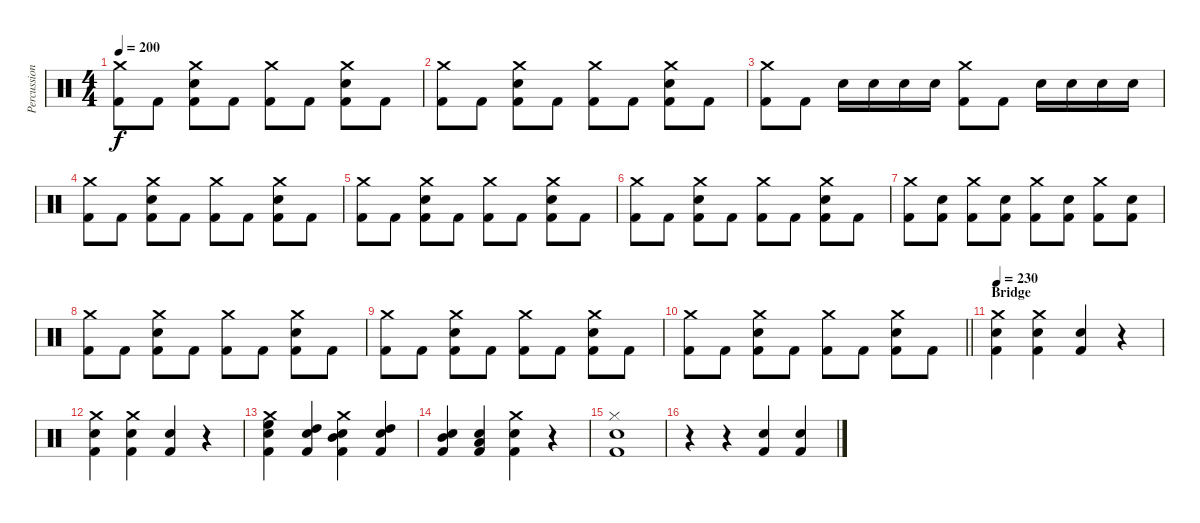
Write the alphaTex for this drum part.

\track ("Percussion" "Percussion") {instrument percussion}
\staff {score}
\articulation defaults
\ts (4 4)
\tempo 200
\clef neutral
\ks c
("Crash medium (hit)" "Kick (hit) 2").8{dy f} "Kick (hit) 2".8 ("Crash medium (hit)" "Electric Snare (hit)" "Kick (hit) 2").8 "Kick (hit) 2".8 ("Crash medium (hit)" "Kick (hit) 2").8 "Kick (hit) 2".8 ("Crash medium (hit)" "Electric Snare (hit)" "Kick (hit) 2").8 "Kick (hit) 2".8 |
("Crash medium (hit)" "Kick (hit) 2").8 "Kick (hit) 2".8 ("Crash medium (hit)" "Electric Snare (hit)" "Kick (hit) 2").8 "Kick (hit) 2".8 ("Crash medium (hit)" "Kick (hit) 2").8 "Kick (hit) 2".8 ("Crash medium (hit)" "Electric Snare (hit)" "Kick (hit) 2").8 "Kick (hit) 2".8 |
("Crash medium (hit)" "Kick (hit) 2").8 "Kick (hit) 2".8 "Electric Snare (hit)".16 "Electric Snare (hit)".16 "Electric Snare (hit)".16 "Electric Snare (hit)".16 ("Crash medium (hit)" "Kick (hit) 2").8 "Kick (hit) 2".8 "Electric Snare (hit)".16 "Electric Snare (hit)".16 "Electric Snare (hit)".16 "Electric Snare (hit)".16 |
("Crash medium (hit)" "Kick (hit) 2").8 "Kick (hit) 2".8 ("Crash medium (hit)" "Electric Snare (hit)" "Kick (hit) 2").8 "Kick (hit) 2".8 ("Crash medium (hit)" "Kick (hit) 2").8 "Kick (hit) 2".8 ("Crash medium (hit)" "Electric Snare (hit)" "Kick (hit) 2").8 "Kick (hit) 2".8 |
("Crash medium (hit)" "Kick (hit) 2").8 "Kick (hit) 2".8 ("Crash medium (hit)" "Electric Snare (hit)" "Kick (hit) 2").8 "Kick (hit) 2".8 ("Crash medium (hit)" "Kick (hit) 2").8 "Kick (hit) 2".8 ("Crash medium (hit)" "Electric Snare (hit)" "Kick (hit) 2").8 "Kick (hit) 2".8 |
("Crash medium (hit)" "Kick (hit) 2").8 "Kick (hit) 2".8 ("Crash medium (hit)" "Electric Snare (hit)" "Kick (hit) 2").8 "Kick (hit) 2".8 ("Crash medium (hit)" "Kick (hit) 2").8 "Kick (hit) 2".8 ("Crash medium (hit)" "Electric Snare (hit)" "Kick (hit) 2").8 "Kick (hit) 2".8 |
("Crash medium (hit)" "Kick (hit) 2").8 ("Electric Snare (hit)" "Kick (hit) 2").8 ("Crash medium (hit)" "Kick (hit) 2").8 ("Electric Snare (hit)" "Kick (hit) 2").8 ("Crash medium (hit)" "Kick (hit) 2").8 ("Electric Snare (hit)" "Kick (hit) 2").8 ("Crash medium (hit)" "Kick (hit) 2").8 ("Electric Snare (hit)" "Kick (hit) 2").8 |
("Crash medium (hit)" "Kick (hit) 2").8 "Kick (hit) 2".8 ("Crash medium (hit)" "Electric Snare (hit)" "Kick (hit) 2").8 "Kick (hit) 2".8 ("Crash medium (hit)" "Kick (hit) 2").8 "Kick (hit) 2".8 ("Crash medium (hit)" "Electric Snare (hit)" "Kick (hit) 2").8 "Kick (hit) 2".8 |
("Crash medium (hit)" "Kick (hit) 2").8 "Kick (hit) 2".8 ("Crash medium (hit)" "Electric Snare (hit)" "Kick (hit) 2").8 "Kick (hit) 2".8 ("Crash medium (hit)" "Kick (hit) 2").8 "Kick (hit) 2".8 ("Crash medium (hit)" "Electric Snare (hit)" "Kick (hit) 2").8 "Kick (hit) 2".8 |
\barLineRight lightlight
("Crash medium (hit)" "Kick (hit) 2").8 "Kick (hit) 2".8 ("Crash medium (hit)" "Electric Snare (hit)" "Kick (hit) 2").8 "Kick (hit) 2".8 ("Crash medium (hit)" "Kick (hit) 2").8 "Kick (hit) 2".8 ("Crash medium (hit)" "Electric Snare (hit)" "Kick (hit) 2").8 "Kick (hit) 2".8 |
\section ("" "Bridge")
\tempo 230
("Crash medium (hit)" "Electric Snare (hit)" "Kick (hit) 2").4 ("Crash medium (hit)" "Electric Snare (hit)" "Kick (hit) 2").4 ("Electric Snare (hit)" "Kick (hit) 2").4 r.4 |
("Crash medium (hit)" "Electric Snare (hit)" "Kick (hit) 2").4 ("Crash medium (hit)" "Electric Snare (hit)" "Kick (hit) 2").4 ("Electric Snare (hit)" "Kick (hit) 2").4 r.4 |
("Crash medium (hit)" "High Floor Tom (hit)" "Electric Snare (hit)" "Kick (hit) 2").4 ("High Tom (hit)" "Electric Snare (hit)" "Kick (hit) 2").4 ("Crash medium (hit)" "Mid Tom (hit)" "Electric Snare (hit)" "Kick (hit) 2").4 ("High Tom (hit)" "Electric Snare (hit)" "Kick (hit) 2").4 |
("Mid Tom (hit)" "Electric Snare (hit)" "Kick (hit) 2").4 ("Low Tom (hit)" "Electric Snare (hit)" "Kick (hit) 2").4 ("Crash medium (hit)" "Electric Snare (hit)" "Kick (hit) 2").4 r.4 |
("Hi-Hat (closed)" "Electric Snare (hit)" "Kick (hit) 2").1 |
r.4 r.4 ("Electric Snare (hit)" "Kick (hit) 2").4 ("Electric Snare (hit)" "Kick (hit) 2").4
